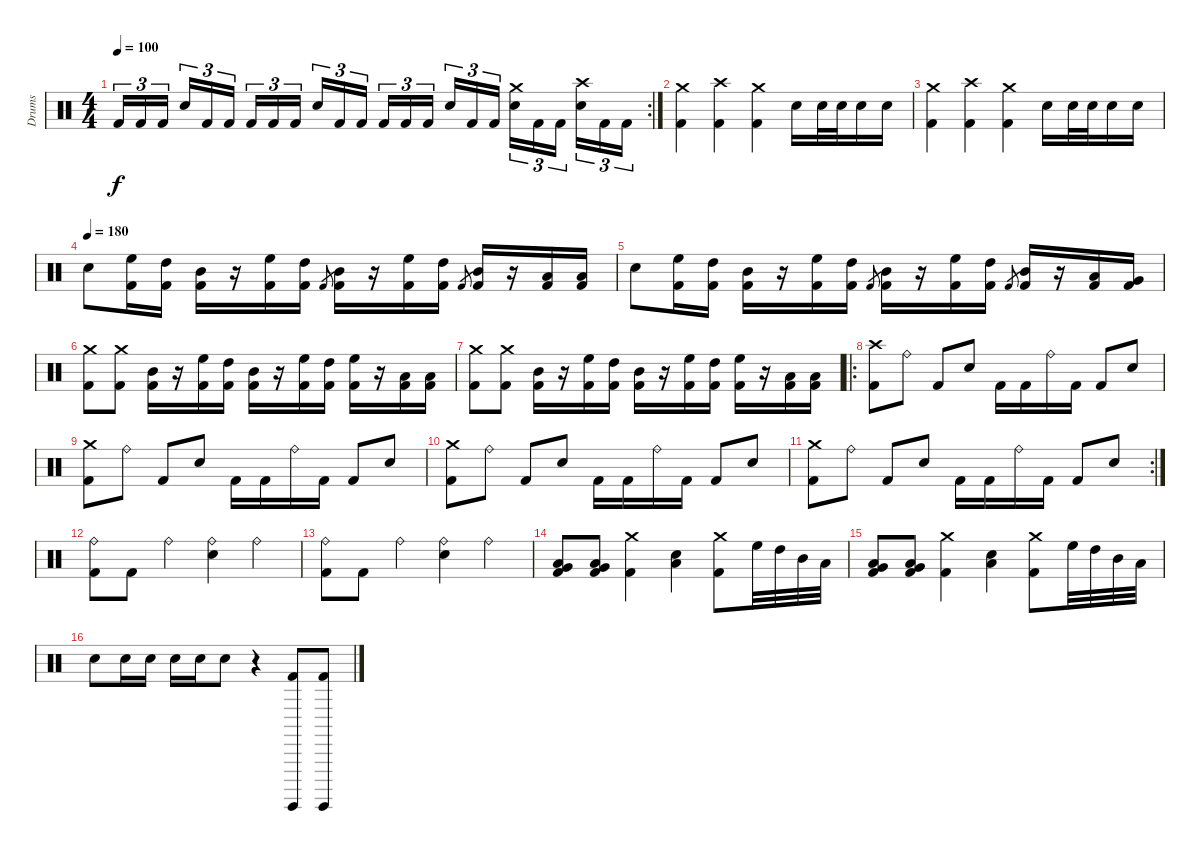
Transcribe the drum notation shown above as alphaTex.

\track ("Drums" "Drums") {instrument percussion}
\staff {score}
\articulation defaults
\rc 2
\ts (4 4)
\tempo 100
\clef neutral
\ks c "Kick (hit) 2".16{tu (3 2) dy f} "Kick (hit) 2".16{tu (3 2)} "Kick (hit) 2".16{tu (3 2)} "Electric Snare (hit)".16{tu (3 2)} "Kick (hit) 2".16{tu (3 2)} "Kick (hit) 2".16{tu (3 2)} "Kick (hit) 2".16{tu (3 2)} "Kick (hit) 2".16{tu (3 2)} "Kick (hit) 2".16{tu (3 2)} "Electric Snare (hit)".16{tu (3 2)} "Kick (hit) 2".16{tu (3 2)} "Kick (hit) 2".16{tu (3 2)} "Kick (hit) 2".16{tu (3 2)} "Kick (hit) 2".16{tu (3 2)} "Kick (hit) 2".16{tu (3 2)} "Electric Snare (hit)".16{tu (3 2)} "Kick (hit) 2".16{tu (3 2)} "Kick (hit) 2".16{tu (3 2)}
("Electric Snare (hit)" "Crash medium (hit)").16{tu (3 2)} "Kick (hit) 2".16{tu (3 2)} "Kick (hit) 2".16{tu (3 2)} ("Electric Snare (hit)" "Crash high (hit)").16{tu (3 2)} "Kick (hit) 2".16{tu (3 2)} "Kick (hit) 2".16{tu (3 2)} |
("Kick (hit) 2" "Crash medium (hit)").4 ("Kick (hit) 2" "Crash high (hit)").4 ("Kick (hit) 2" "Crash medium (hit)").4 "Electric Snare (hit)".16 "Electric Snare (hit)".32 "Electric Snare (hit)".32 "Electric Snare (hit)".16 "Electric Snare (hit)".16 |
("Kick (hit) 2" "Crash medium (hit)").4 ("Kick (hit) 2" "Crash high (hit)").4 ("Kick (hit) 2" "Crash medium (hit)").4 "Electric Snare (hit)".16 "Electric Snare (hit)".32 "Electric Snare (hit)".32 "Electric Snare (hit)".16 "Electric Snare (hit)".16 |
\tempo (180)
"Electric Snare (hit)".8 ("Kick (hit) 2" "High Floor Tom (hit)").16 ("Kick (hit) 2" "High Tom (hit)").16 ("Kick (hit) 2" "Mid Tom (hit)").16 r.16 ("Kick (hit) 2" "High Floor Tom (hit)").16 ("Kick (hit) 2" "High Tom (hit)").16 "Kick (hit) 2".8{gr} ("Kick (hit) 2" "Mid Tom (hit)").16 r.16 ("Kick (hit) 2" "High Floor Tom (hit)").16 ("Kick (hit) 2" "High Tom (hit)").16 "Kick (hit) 2".8{gr} ("Kick (hit) 2" "Mid Tom (hit)").16 r.16 ("Kick (hit) 2" "Low Tom (hit)").16 ("Kick (hit) 2" "Low Tom (hit)").16 |
"Electric Snare (hit)".8 ("Kick (hit) 2" "High Floor Tom (hit)").16 ("Kick (hit) 2" "High Tom (hit)").16 ("Kick (hit) 2" "Mid Tom (hit)").16 r.16 ("Kick (hit) 2" "High Floor Tom (hit)").16 ("Kick (hit) 2" "High Tom (hit)").16 "Kick (hit) 2".8{gr} ("Kick (hit) 2" "Mid Tom (hit)").16 r.16 ("Kick (hit) 2" "High Floor Tom (hit)").16 ("Kick (hit) 2" "High Tom (hit)").16 "Kick (hit) 2".8{gr} ("Kick (hit) 2" "Mid Tom (hit)").16 r.16 ("Kick (hit) 2" "Low Tom (hit)").16 ("Kick (hit) 2" "Very Low Tom (hit)").16 |
("Crash medium (hit)" "Kick (hit) 2").8 ("Crash medium (hit)" "Kick (hit) 2").8 ("Kick (hit) 2" "Mid Tom (hit)").16 r.16 ("High Floor Tom (hit)" "Kick (hit) 2").16 ("High Tom (hit)" "Kick (hit) 2").16 ("Kick (hit) 2" "Mid Tom (hit)").16 r.16 ("High Floor Tom (hit)" "Kick (hit) 2").16 ("High Tom (hit)" "Kick (hit) 2").16 ("High Floor Tom (hit)" "Kick (hit) 2").16 r.16 ("Low Tom (hit)" "Kick (hit) 2").16 ("Low Tom (hit)" "Kick (hit) 2").16 |
("Crash medium (hit)" "Kick (hit) 2").8 ("Crash medium (hit)" "Kick (hit) 2").8 ("Kick (hit) 2" "Mid Tom (hit)").16 r.16 ("High Floor Tom (hit)" "Kick (hit) 2").16 ("High Tom (hit)" "Kick (hit) 2").16 ("Kick (hit) 2" "Mid Tom (hit)").16 r.16 ("High Floor Tom (hit)" "Kick (hit) 2").16 ("High Tom (hit)" "Kick (hit) 2").16 ("High Floor Tom (hit)" "Kick (hit) 2").16 r.16 ("Low Tom (hit)" "Kick (hit) 2").16 ("Low Tom (hit)" "Kick (hit) 2").16 |
\ro
("Crash high (hit)" "Kick (hit) 2").8 "Ride (bell)".8 "Kick (hit) 2".8 "Electric Snare (hit)".8 "Kick (hit) 2".16 "Kick (hit) 2".16 "Ride (bell)".16 "Kick (hit) 2".16 "Kick (hit) 2".8 "Electric Snare (hit)".8 |
("Crash medium (hit)" "Kick (hit) 2").8 "Ride (bell)".8 "Kick (hit) 2".8 "Electric Snare (hit)".8 "Kick (hit) 2".16 "Kick (hit) 2".16 "Ride (bell)".16 "Kick (hit) 2".16 "Kick (hit) 2".8 "Electric Snare (hit)".8 |
("Crash medium (hit)" "Kick (hit) 2").8 "Ride (bell)".8 "Kick (hit) 2".8 "Electric Snare (hit)".8 "Kick (hit) 2".16 "Kick (hit) 2".16 "Ride (bell)".16 "Kick (hit) 2".16 "Kick (hit) 2".8 "Electric Snare (hit)".8 |
\rc 2
("Crash medium (hit)" "Kick (hit) 2").8 "Ride (bell)".8 "Kick (hit) 2".8 "Electric Snare (hit)".8 "Kick (hit) 2".16 "Kick (hit) 2".16 "Ride (bell)".16 "Kick (hit) 2".16 "Kick (hit) 2".8 "Electric Snare (hit)".8 |
("Kick (hit) 2" "Ride (bell)").8 "Kick (hit) 2".8 "Ride (bell)".4 ("Electric Snare (hit)" "Ride (bell)").4 "Ride (bell)".4 |
("Kick (hit) 2" "Ride (bell)").8 "Kick (hit) 2".8 "Ride (bell)".4 ("Electric Snare (hit)" "Ride (bell)").4 "Ride (bell)".4 |
("Very Low Tom (hit)" "Low Tom (hit)" "Kick (hit) 2").8 ("Very Low Tom (hit)" "Low Tom (hit)" "Kick (hit) 2").8 ("Kick (hit) 2" "Crash medium (hit)").4 ("Low Tom (hit)" "Electric Snare (hit)").4 ("Crash medium (hit)" "Kick (hit) 2").8 "High Floor Tom (hit)".32 "High Tom (hit)".32 "Mid Tom (hit)".32 "Low Tom (hit)".32 |
("Very Low Tom (hit)" "Low Tom (hit)" "Kick (hit) 2").8 ("Very Low Tom (hit)" "Low Tom (hit)" "Kick (hit) 2").8 ("Kick (hit) 2" "Crash medium (hit)").4 ("Low Tom (hit)" "Electric Snare (hit)").4 ("Crash medium (hit)" "Kick (hit) 2").8 "High Floor Tom (hit)".32 "High Tom (hit)".32 "Mid Tom (hit)".32 "Low Tom (hit)".32 |
"Electric Snare (hit)".8 "Electric Snare (hit)".16 "Electric Snare (hit)".16 "Electric Snare (hit)".16 "Electric Snare (hit)".16 "Electric Snare (hit)".8 r.4 ("Kick (hit) 2" "Surdo (hit)").8 ("Kick (hit) 2" "Surdo (hit)").8
